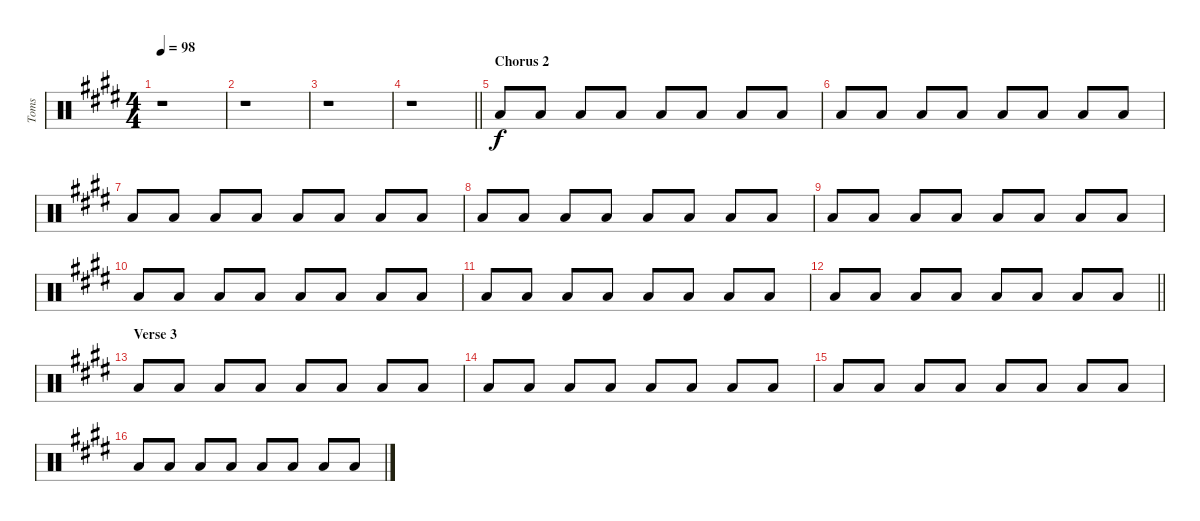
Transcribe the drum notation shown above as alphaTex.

\track ("Toms" "Toms") {instrument percussion}
\staff {score}
\articulation defaults
\ts (4 4)
\tempo 98
\clef neutral
\ks c#minor
r.1{dy f} |
r.1 |
r.1 |
\barLineRight lightlight
r.1 |
\section ("" "Chorus 2")
"Low Tom (hit)".8 "Low Floor Tom (hit)".8 "Low Floor Tom (hit)".8 "Low Floor Tom (hit)".8 "Low Tom (hit)".8 "Low Floor Tom (hit)".8 "Low Floor Tom (hit)".8 "Low Floor Tom (hit)".8 |
"Low Tom (hit)".8 "Low Floor Tom (hit)".8 "Low Floor Tom (hit)".8 "Low Floor Tom (hit)".8 "Low Tom (hit)".8 "Low Floor Tom (hit)".8 "Low Floor Tom (hit)".8 "Low Floor Tom (hit)".8 |
"Low Tom (hit)".8 "Low Floor Tom (hit)".8 "Low Floor Tom (hit)".8 "Low Floor Tom (hit)".8 "Low Tom (hit)".8 "Low Floor Tom (hit)".8 "Low Floor Tom (hit)".8 "Low Floor Tom (hit)".8 |
"Low Tom (hit)".8 "Low Floor Tom (hit)".8 "Low Floor Tom (hit)".8 "Low Floor Tom (hit)".8 "Low Tom (hit)".8 "Low Floor Tom (hit)".8 "Low Floor Tom (hit)".8 "Low Floor Tom (hit)".8 |
"Low Tom (hit)".8 "Low Floor Tom (hit)".8 "Low Floor Tom (hit)".8 "Low Floor Tom (hit)".8 "Low Tom (hit)".8 "Low Floor Tom (hit)".8 "Low Floor Tom (hit)".8 "Low Floor Tom (hit)".8 |
"Low Tom (hit)".8 "Low Floor Tom (hit)".8 "Low Floor Tom (hit)".8 "Low Floor Tom (hit)".8 "Low Tom (hit)".8 "Low Floor Tom (hit)".8 "Low Floor Tom (hit)".8 "Low Floor Tom (hit)".8 |
"Low Tom (hit)".8 "Low Floor Tom (hit)".8 "Low Floor Tom (hit)".8 "Low Floor Tom (hit)".8 "Low Tom (hit)".8 "Low Floor Tom (hit)".8 "Low Floor Tom (hit)".8 "Low Floor Tom (hit)".8 |
\barLineRight lightlight "Low Tom (hit)".8 "Low Floor Tom (hit)".8 "Low Floor Tom (hit)".8 "Low Floor Tom (hit)".8 "Low Tom (hit)".8 "Low Floor Tom (hit)".8 "Low Floor Tom (hit)".8 "Low Floor Tom (hit)".8
|
\section ("" "Verse 3")
"Low Tom (hit)".8 "Low Floor Tom (hit)".8 "Low Floor Tom (hit)".8 "Low Floor Tom (hit)".8 "Low Tom (hit)".8 "Low Floor Tom (hit)".8 "Low Floor Tom (hit)".8 "Low Floor Tom (hit)".8 |
"Low Tom (hit)".8 "Low Floor Tom (hit)".8 "Low Floor Tom (hit)".8 "Low Floor Tom (hit)".8 "Low Tom (hit)".8 "Low Floor Tom (hit)".8 "Low Floor Tom (hit)".8 "Low Floor Tom (hit)".8 |
"Low Tom (hit)".8 "Low Floor Tom (hit)".8 "Low Floor Tom (hit)".8 "Low Floor Tom (hit)".8 "Low Tom (hit)".8 "Low Floor Tom (hit)".8 "Low Floor Tom (hit)".8 "Low Floor Tom (hit)".8 |
"Low Tom (hit)".8 "Low Floor Tom (hit)".8 "Low Floor Tom (hit)".8 "Low Floor Tom (hit)".8 "Low Tom (hit)".8 "Low Floor Tom (hit)".8 "Low Floor Tom (hit)".8 "Low Floor Tom (hit)".8
